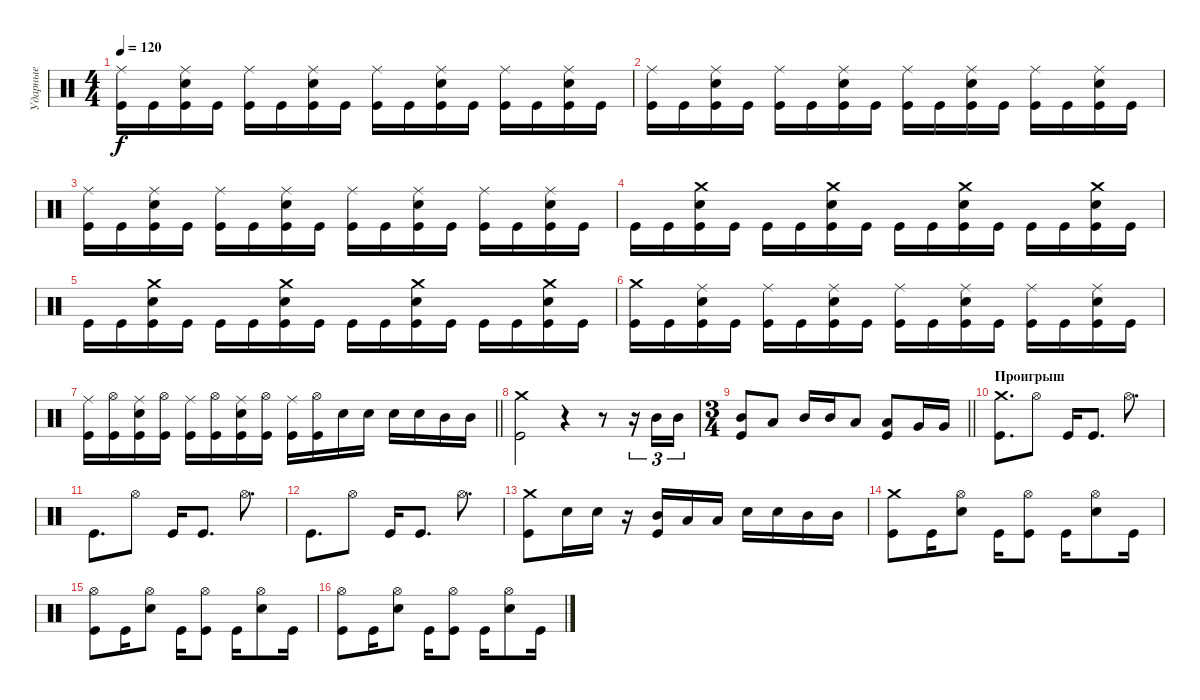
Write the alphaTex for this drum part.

\track ("Ударные" "Ударные") {instrument percussion}
\staff {score}
\articulation defaults
\ts (4 4)
\tempo 120
\clef neutral
\ks c
("Kick (hit)" "Ride (middle)").16{dy f} "Kick (hit)".16 ("Kick (hit)" "Snare (hit) 2" "Ride (middle)").16 "Kick (hit)".16 ("Kick (hit)" "Ride (middle)").16 "Kick (hit)".16 ("Kick (hit)" "Snare (hit) 2" "Ride (middle)").16 "Kick (hit)".16 ("Kick (hit)" "Ride (middle)").16 "Kick (hit)".16 ("Kick (hit)" "Snare (hit) 2" "Ride (middle)").16 "Kick (hit)".16 ("Kick (hit)" "Ride (middle)").16 "Kick (hit)".16 ("Kick (hit)" "Snare (hit) 2" "Ride (middle)").16 "Kick (hit)".16 |
("Kick (hit)" "Ride (middle)").16 "Kick (hit)".16 ("Kick (hit)" "Snare (hit) 2" "Ride (middle)").16 "Kick (hit)".16 ("Kick (hit)" "Ride (middle)").16 "Kick (hit)".16 ("Kick (hit)" "Snare (hit) 2" "Ride (middle)").16 "Kick (hit)".16 ("Kick (hit)" "Ride (middle)").16 "Kick (hit)".16 ("Kick (hit)" "Snare (hit) 2" "Ride (middle)").16 "Kick (hit)".16 ("Kick (hit)" "Ride (middle)").16 "Kick (hit)".16 ("Kick (hit)" "Snare (hit) 2" "Ride (middle)").16 "Kick (hit)".16 |
("Kick (hit)" "Ride (middle)").16 "Kick (hit)".16 ("Kick (hit)" "Snare (hit) 2" "Ride (middle)").16 "Kick (hit)".16 ("Kick (hit)" "Ride (middle)").16 "Kick (hit)".16 ("Kick (hit)" "Snare (hit) 2" "Ride (middle)").16 "Kick (hit)".16 ("Kick (hit)" "Ride (middle)").16 "Kick (hit)".16 ("Kick (hit)" "Snare (hit) 2" "Ride (middle)").16 "Kick (hit)".16 ("Kick (hit)" "Ride (middle)").16 "Kick (hit)".16 ("Kick (hit)" "Snare (hit) 2" "Ride (middle)").16 "Kick (hit)".16 |
"Kick (hit)".16 "Kick (hit)".16 ("Kick (hit)" "Snare (hit) 2" "Crash medium (hit)").16 "Kick (hit)".16 "Kick (hit)".16 "Kick (hit)".16 ("Kick (hit)" "Snare (hit) 2" "Crash medium (hit)").16 "Kick (hit)".16 "Kick (hit)".16 "Kick (hit)".16 ("Kick (hit)" "Snare (hit) 2" "Crash medium (hit)").16 "Kick (hit)".16 "Kick (hit)".16 "Kick (hit)".16 ("Kick (hit)" "Snare (hit) 2" "Crash medium (hit)").16 "Kick (hit)".16 |
"Kick (hit)".16 "Kick (hit)".16 ("Kick (hit)" "Snare (hit) 2" "Crash medium (hit)").16 "Kick (hit)".16 "Kick (hit)".16 "Kick (hit)".16 ("Kick (hit)" "Snare (hit) 2" "Crash medium (hit)").16 "Kick (hit)".16 "Kick (hit)".16 "Kick (hit)".16 ("Kick (hit)" "Snare (hit) 2" "Crash medium (hit)").16 "Kick (hit)".16 "Kick (hit)".16 "Kick (hit)".16 ("Kick (hit)" "Snare (hit) 2" "Crash medium (hit)").16 "Kick (hit)".16 |
("Kick (hit)" "Crash medium (hit)").16 "Kick (hit)".16 ("Kick (hit)" "Snare (hit) 2" "Ride (middle)").16 "Kick (hit)".16 ("Kick (hit)" "Ride (middle)").16 "Kick (hit)".16 ("Kick (hit)" "Snare (hit) 2" "Ride (middle)").16 "Kick (hit)".16 ("Kick (hit)" "Ride (middle)").16 "Kick (hit)".16 ("Kick (hit)" "Snare (hit) 2" "Ride (middle)").16 "Kick (hit)".16 ("Kick (hit)" "Ride (middle)").16 "Kick (hit)".16 ("Kick (hit)" "Snare (hit) 2" "Ride (middle)").16 "Kick (hit)".16 |
\barLineRight lightlight
("Kick (hit)" "Ride (middle)").16 ("Kick (hit)" "Hi-Hat (open)").16 ("Kick (hit)" "Snare (hit) 2" "Ride (middle)").16 ("Kick (hit)" "Hi-Hat (open)").16 ("Kick (hit)" "Ride (middle)").16 ("Kick (hit)" "Hi-Hat (open)").16 ("Kick (hit)" "Snare (hit) 2" "Ride (middle)").16 ("Kick (hit)" "Hi-Hat (open)").16 ("Kick (hit)" "Ride (middle)").16 ("Kick (hit)" "Hi-Hat (open)").16 "Snare (hit) 2".16 "Snare (hit) 2".16 "Snare (hit) 2".16 "Snare (hit) 2".16 "Mid Tom (hit)".16 "Mid Tom (hit)".16 |
("Kick (hit)" "Crash medium (hit)").2 r.4 r.8 r.16{tu (3 2)} "Mid Tom (hit)".16{tu (3 2)} "Mid Tom (hit)".16{tu (3 2)} |
\ts (3 4)
\barLineRight lightlight
("Kick (hit)" "Mid Tom (hit)").8 "Low Tom (hit)".8 "Mid Tom (hit)".16 "Mid Tom (hit)".16 "Low Tom (hit)".8 ("Kick (hit)" "Low Tom (hit)").8 "Very Low Tom (hit)".16 "Very Low Tom (hit)".16 |
\section ("" "Проигрыш")
("Kick (hit)" "Crash medium (hit)").8{d} "Hi-Hat (open)".8 "Kick (hit)".16 "Kick (hit)".8{d} "Hi-Hat (open)".8{d} |
"Kick (hit)".8{d} "Hi-Hat (open)".8 "Kick (hit)".16 "Kick (hit)".8{d} "Hi-Hat (open)".8{d} |
"Kick (hit)".8{d} "Hi-Hat (open)".8 "Kick (hit)".16 "Kick (hit)".8{d} "Hi-Hat (open)".8{d} |
("Kick (hit)" "Crash medium (hit)").8 "Snare (hit) 2".16 "Snare (hit) 2".16 r.16 ("Kick (hit)" "Mid Tom (hit)").16 "Low Tom (hit)".16 "Low Tom (hit)".16 "Snare (hit) 2".16 "Snare (hit) 2".16 "Mid Tom (hit)".16 "Mid Tom (hit)".16 |
("Kick (hit)" "Crash medium (hit)").8 "Kick (hit)".16 ("Snare (hit) 2" "Hi-Hat (open)").8 "Kick (hit)".16 ("Kick (hit)" "Hi-Hat (open)").8 "Kick (hit)".16 ("Snare (hit) 2" "Hi-Hat (open)").8 "Kick (hit)".16 |
("Kick (hit)" "Hi-Hat (open)").8 "Kick (hit)".16 ("Snare (hit) 2" "Hi-Hat (open)").8 "Kick (hit)".16 ("Kick (hit)" "Hi-Hat (open)").8 "Kick (hit)".16 ("Snare (hit) 2" "Hi-Hat (open)").8 "Kick (hit)".16 |
("Kick (hit)" "Hi-Hat (open)").8 "Kick (hit)".16 ("Snare (hit) 2" "Hi-Hat (open)").8 "Kick (hit)".16 ("Kick (hit)" "Hi-Hat (open)").8 "Kick (hit)".16 ("Snare (hit) 2" "Hi-Hat (open)").8 "Kick (hit)".16
